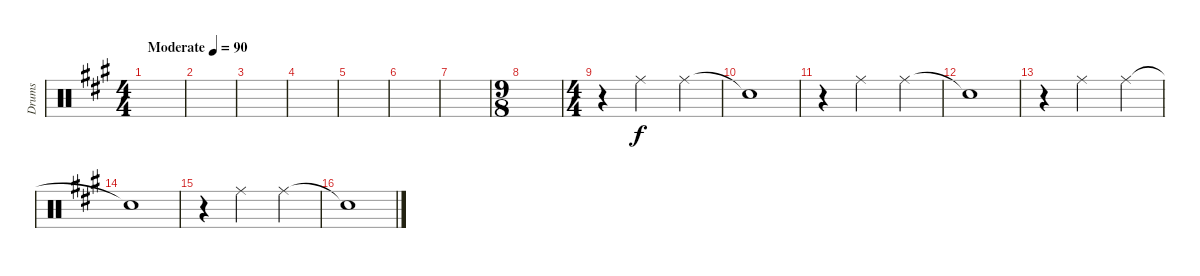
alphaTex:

\track ("Drums" "Drums") {instrument percussion}
\staff {score}
\articulation defaults
\ts (4 4)
\tempo (90 "Moderate")
\clef neutral
\ks a
|
|
|
|
|
|
|
\ts (9 8)
|
\ts (4 4)
r.4 "Ride (middle)".2 "Ride (middle)".4 |
"Snare (hit)"{t}.1 |
r.4 "Ride (middle)".2 "Ride (middle)".4 |
"Snare (hit)"{t}.1 |
r.4 "Ride (middle)".2 "Ride (middle)".4 |
"Snare (hit)"{t}.1 |
r.4 "Ride (middle)".2 "Ride (middle)".4 |
"Snare (hit)"{t}.1
